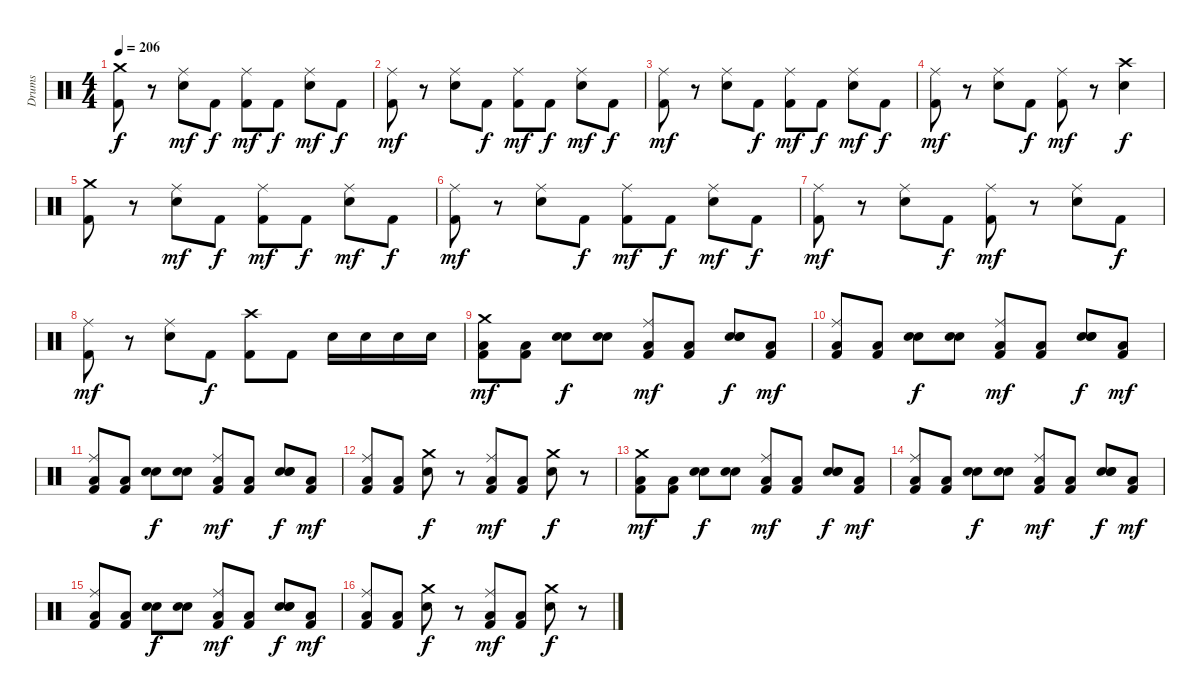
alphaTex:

\track ("Drums" "Drums") {instrument percussion}
\staff {score}
\articulation defaults
\ts (4 4)
\tempo 206
\clef neutral
\ks c
("Crash medium (hit)" "Kick (hit) 2").8{dy f} r.8 ("Ride (middle)" "Snare (hit) 2").8{dy mf} "Kick (hit) 2".8{dy f} ("Ride (middle)" "Kick (hit) 2").8{dy mf} "Kick (hit) 2".8{dy f} ("Ride (middle)" "Snare (hit) 2").8{dy mf} "Kick (hit) 2".8{dy f} |
("Ride (middle)" "Kick (hit) 2").8{dy mf} r.8 ("Ride (middle)" "Snare (hit) 2").8 "Kick (hit) 2".8{dy f} ("Ride (middle)" "Kick (hit) 2").8{dy mf} "Kick (hit) 2".8{dy f} ("Ride (middle)" "Snare (hit) 2").8{dy mf} "Kick (hit) 2".8{dy f} |
("Ride (middle)" "Kick (hit) 2").8{dy mf} r.8 ("Ride (middle)" "Snare (hit) 2").8 "Kick (hit) 2".8{dy f} ("Ride (middle)" "Kick (hit) 2").8{dy mf} "Kick (hit) 2".8{dy f} ("Ride (middle)" "Snare (hit) 2").8{dy mf} "Kick (hit) 2".8{dy f} |
("Ride (middle)" "Kick (hit) 2").8{dy mf} r.8 ("Ride (middle)" "Snare (hit) 2").8 "Kick (hit) 2".8{dy f} ("Ride (middle)" "Kick (hit) 2").8{dy mf} r.8 ("Crash high (hit)" "Snare (hit) 2").4{dy f} |
("Crash medium (hit)" "Kick (hit) 2").8 r.8 ("Ride (middle)" "Snare (hit) 2").8{dy mf} "Kick (hit) 2".8{dy f} ("Ride (middle)" "Kick (hit) 2").8{dy mf} "Kick (hit) 2".8{dy f} ("Ride (middle)" "Snare (hit) 2").8{dy mf} "Kick (hit) 2".8{dy f} |
("Ride (middle)" "Kick (hit) 2").8{dy mf} r.8 ("Ride (middle)" "Snare (hit) 2").8 "Kick (hit) 2".8{dy f} ("Ride (middle)" "Kick (hit) 2").8{dy mf} "Kick (hit) 2".8{dy f} ("Ride (middle)" "Snare (hit) 2").8{dy mf} "Kick (hit) 2".8{dy f} |
("Ride (middle)" "Kick (hit) 2").8{dy mf} r.8 ("Ride (middle)" "Snare (hit) 2").8 "Kick (hit) 2".8{dy f} ("Ride (middle)" "Kick (hit) 2").8{dy mf} r.8 ("Ride (middle)" "Snare (hit) 2").8 "Kick (hit) 2".8{dy f} |
("Ride (middle)" "Kick (hit) 2").8{dy mf} r.8 ("Ride (middle)" "Snare (hit) 2").8 "Kick (hit) 2".8{dy f} ("Crash high (hit)" "Kick (hit) 2").8 "Kick (hit) 2".8 "Snare (hit) 2".16 "Snare (hit) 2".16 "Snare (hit) 2".16 "Snare (hit) 2".16 |
("Crash medium (hit)" "Low Floor Tom (hit)" "Kick (hit) 2").8{dy mf} ("Low Floor Tom (hit)" "Kick (hit) 2").8 ("Snare (hit) 2" "Hand Clap (hit)").8{dy f} ("Snare (hit) 2" "Hand Clap (hit)").8 ("Ride (middle)" "Low Floor Tom (hit)" "Kick (hit) 2").8{dy mf} ("Low Floor Tom (hit)" "Kick (hit) 2").8 ("Hand Clap (hit)" "Hand Clap (hit)" "Snare (hit) 2").8{bd 240 dy f} ("Low Floor Tom (hit)" "Kick (hit) 2").8{dy mf} |
("Ride (middle)" "Low Floor Tom (hit)" "Kick (hit) 2").8 ("Low Floor Tom (hit)" "Kick (hit) 2").8 ("Snare (hit) 2" "Hand Clap (hit)").8{dy f} ("Snare (hit) 2" "Hand Clap (hit)").8 ("Ride (middle)" "Low Floor Tom (hit)" "Kick (hit) 2").8{dy mf} ("Low Floor Tom (hit)" "Kick (hit) 2").8 ("Hand Clap (hit)" "Hand Clap (hit)" "Snare (hit) 2").8{bd 240 dy f} ("Low Floor Tom (hit)" "Kick (hit) 2").8{dy mf} |
("Ride (middle)" "Low Floor Tom (hit)" "Kick (hit) 2").8 ("Low Floor Tom (hit)" "Kick (hit) 2").8 ("Snare (hit) 2" "Hand Clap (hit)").8{dy f} ("Snare (hit) 2" "Hand Clap (hit)").8 ("Ride (middle)" "Low Floor Tom (hit)" "Kick (hit) 2").8{dy mf} ("Low Floor Tom (hit)" "Kick (hit) 2").8 ("Hand Clap (hit)" "Hand Clap (hit)" "Snare (hit) 2").8{bd 240 dy f} ("Low Floor Tom (hit)" "Kick (hit) 2").8{dy mf} |
("Ride (middle)" "Low Floor Tom (hit)" "Kick (hit) 2").8 ("Low Floor Tom (hit)" "Kick (hit) 2").8 ("Crash medium (hit)" "Snare (hit) 2").8{dy f} r.8 ("Ride (middle)" "Low Floor Tom (hit)" "Kick (hit) 2").8{dy mf} ("Low Floor Tom (hit)" "Kick (hit) 2").8 ("Crash medium (hit)" "Snare (hit) 2").8{dy f} r.8 |
("Crash medium (hit)" "Low Floor Tom (hit)" "Kick (hit) 2").8{dy mf} ("Low Floor Tom (hit)" "Kick (hit) 2").8 ("Snare (hit) 2" "Hand Clap (hit)").8{dy f} ("Snare (hit) 2" "Hand Clap (hit)").8 ("Ride (middle)" "Low Floor Tom (hit)" "Kick (hit) 2").8{dy mf} ("Low Floor Tom (hit)" "Kick (hit) 2").8 ("Hand Clap (hit)" "Hand Clap (hit)" "Snare (hit) 2").8{bd 240 dy f} ("Low Floor Tom (hit)" "Kick (hit) 2").8{dy mf} |
("Ride (middle)" "Low Floor Tom (hit)" "Kick (hit) 2").8 ("Low Floor Tom (hit)" "Kick (hit) 2").8 ("Snare (hit) 2" "Hand Clap (hit)").8{dy f} ("Snare (hit) 2" "Hand Clap (hit)").8 ("Ride (middle)" "Low Floor Tom (hit)" "Kick (hit) 2").8{dy mf} ("Low Floor Tom (hit)" "Kick (hit) 2").8 ("Hand Clap (hit)" "Hand Clap (hit)" "Snare (hit) 2").8{bd 240 dy f} ("Low Floor Tom (hit)" "Kick (hit) 2").8{dy mf} |
("Ride (middle)" "Low Floor Tom (hit)" "Kick (hit) 2").8 ("Low Floor Tom (hit)" "Kick (hit) 2").8 ("Snare (hit) 2" "Hand Clap (hit)").8{dy f} ("Snare (hit) 2" "Hand Clap (hit)").8 ("Ride (middle)" "Low Floor Tom (hit)" "Kick (hit) 2").8{dy mf} ("Low Floor Tom (hit)" "Kick (hit) 2").8 ("Hand Clap (hit)" "Hand Clap (hit)" "Snare (hit) 2").8{bd 240 dy f} ("Low Floor Tom (hit)" "Kick (hit) 2").8{dy mf} |
("Ride (middle)" "Low Floor Tom (hit)" "Kick (hit) 2").8 ("Low Floor Tom (hit)" "Kick (hit) 2").8 ("Crash medium (hit)" "Snare (hit) 2").8{dy f} r.8 ("Ride (middle)" "Low Floor Tom (hit)" "Kick (hit) 2").8{dy mf} ("Low Floor Tom (hit)" "Kick (hit) 2").8 ("Crash medium (hit)" "Snare (hit) 2").8{dy f} r.8
